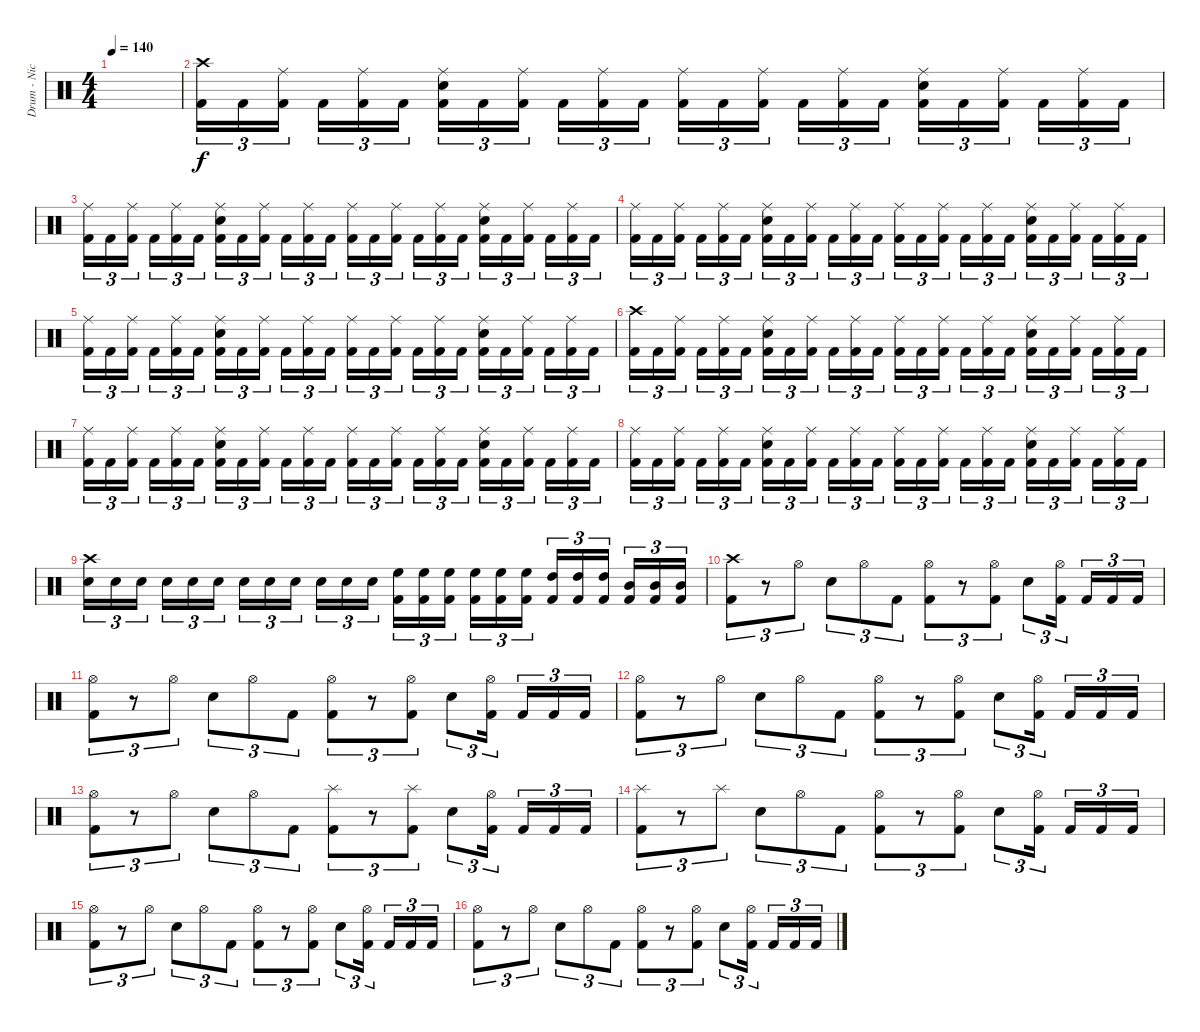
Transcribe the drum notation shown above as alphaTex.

\track ("Drum - Nicholas" "Drum - Nic") {instrument percussion}
\staff {score}
\articulation defaults
\ts (4 4)
\tempo 140
\clef neutral
\ks c
|
("Crash high (hit)" "Kick (hit) 2").16{tu (3 2)} "Kick (hit) 2".16{tu (3 2)} ("Ride (middle)" "Kick (hit) 2").16{tu (3 2) beam splitsecondary} "Kick (hit) 2".16{tu (3 2)} ("Ride (middle)" "Kick (hit) 2").16{tu (3 2)} "Kick (hit) 2".16{tu (3 2)} ("Ride (middle)" "Snare (hit) 2" "Kick (hit) 2").16{tu (3 2)} "Kick (hit) 2".16{tu (3 2)} ("Ride (middle)" "Kick (hit) 2").16{tu (3 2) beam splitsecondary} "Kick (hit) 2".16{tu (3 2)} ("Ride (middle)" "Kick (hit) 2").16{tu (3 2)} "Kick (hit) 2".16{tu (3 2)} ("Ride (middle)" "Kick (hit) 2").16{tu (3 2)} "Kick (hit) 2".16{tu (3 2)} ("Ride (middle)" "Kick (hit) 2").16{tu (3 2) beam splitsecondary} "Kick (hit) 2".16{tu (3 2)} ("Ride (middle)" "Kick (hit) 2").16{tu (3 2)} "Kick (hit) 2".16{tu (3 2)} ("Ride (middle)" "Snare (hit) 2" "Kick (hit) 2").16{tu (3 2)} "Kick (hit) 2".16{tu (3 2)} ("Ride (middle)" "Kick (hit) 2").16{tu (3 2) beam splitsecondary} "Kick (hit) 2".16{tu (3 2)} ("Ride (middle)" "Kick (hit) 2").16{tu (3 2)} "Kick (hit) 2".16{tu (3 2)} |
("Ride (middle)" "Kick (hit) 2").16{tu (3 2)} "Kick (hit) 2".16{tu (3 2)} ("Ride (middle)" "Kick (hit) 2").16{tu (3 2) beam splitsecondary} "Kick (hit) 2".16{tu (3 2)} ("Ride (middle)" "Kick (hit) 2").16{tu (3 2)} "Kick (hit) 2".16{tu (3 2)} ("Ride (middle)" "Snare (hit) 2" "Kick (hit) 2").16{tu (3 2)} "Kick (hit) 2".16{tu (3 2)} ("Ride (middle)" "Kick (hit) 2").16{tu (3 2) beam splitsecondary} "Kick (hit) 2".16{tu (3 2)} ("Ride (middle)" "Kick (hit) 2").16{tu (3 2)} "Kick (hit) 2".16{tu (3 2)} ("Ride (middle)" "Kick (hit) 2").16{tu (3 2)} "Kick (hit) 2".16{tu (3 2)} ("Ride (middle)" "Kick (hit) 2").16{tu (3 2) beam splitsecondary} "Kick (hit) 2".16{tu (3 2)} ("Ride (middle)" "Kick (hit) 2").16{tu (3 2)} "Kick (hit) 2".16{tu (3 2)} ("Ride (middle)" "Snare (hit) 2" "Kick (hit) 2").16{tu (3 2)} "Kick (hit) 2".16{tu (3 2)} ("Ride (middle)" "Kick (hit) 2").16{tu (3 2) beam splitsecondary} "Kick (hit) 2".16{tu (3 2)} ("Ride (middle)" "Kick (hit) 2").16{tu (3 2)} "Kick (hit) 2".16{tu (3 2)} |
("Ride (middle)" "Kick (hit) 2").16{tu (3 2)} "Kick (hit) 2".16{tu (3 2)} ("Ride (middle)" "Kick (hit) 2").16{tu (3 2) beam splitsecondary} "Kick (hit) 2".16{tu (3 2)} ("Ride (middle)" "Kick (hit) 2").16{tu (3 2)} "Kick (hit) 2".16{tu (3 2)} ("Ride (middle)" "Snare (hit) 2" "Kick (hit) 2").16{tu (3 2)} "Kick (hit) 2".16{tu (3 2)} ("Ride (middle)" "Kick (hit) 2").16{tu (3 2) beam splitsecondary} "Kick (hit) 2".16{tu (3 2)} ("Ride (middle)" "Kick (hit) 2").16{tu (3 2)} "Kick (hit) 2".16{tu (3 2)} ("Ride (middle)" "Kick (hit) 2").16{tu (3 2)} "Kick (hit) 2".16{tu (3 2)} ("Ride (middle)" "Kick (hit) 2").16{tu (3 2) beam splitsecondary} "Kick (hit) 2".16{tu (3 2)} ("Ride (middle)" "Kick (hit) 2").16{tu (3 2)} "Kick (hit) 2".16{tu (3 2)} ("Ride (middle)" "Snare (hit) 2" "Kick (hit) 2").16{tu (3 2)} "Kick (hit) 2".16{tu (3 2)} ("Ride (middle)" "Kick (hit) 2").16{tu (3 2) beam splitsecondary} "Kick (hit) 2".16{tu (3 2)} ("Ride (middle)" "Kick (hit) 2").16{tu (3 2)} "Kick (hit) 2".16{tu (3 2)} |
("Ride (middle)" "Kick (hit) 2").16{tu (3 2)} "Kick (hit) 2".16{tu (3 2)} ("Ride (middle)" "Kick (hit) 2").16{tu (3 2) beam splitsecondary} "Kick (hit) 2".16{tu (3 2)} ("Ride (middle)" "Kick (hit) 2").16{tu (3 2)} "Kick (hit) 2".16{tu (3 2)} ("Ride (middle)" "Snare (hit) 2" "Kick (hit) 2").16{tu (3 2)} "Kick (hit) 2".16{tu (3 2)} ("Ride (middle)" "Kick (hit) 2").16{tu (3 2) beam splitsecondary} "Kick (hit) 2".16{tu (3 2)} ("Ride (middle)" "Kick (hit) 2").16{tu (3 2)} "Kick (hit) 2".16{tu (3 2)} ("Ride (middle)" "Kick (hit) 2").16{tu (3 2)} "Kick (hit) 2".16{tu (3 2)} ("Ride (middle)" "Kick (hit) 2").16{tu (3 2) beam splitsecondary} "Kick (hit) 2".16{tu (3 2)} ("Ride (middle)" "Kick (hit) 2").16{tu (3 2)} "Kick (hit) 2".16{tu (3 2)} ("Ride (middle)" "Snare (hit) 2" "Kick (hit) 2").16{tu (3 2)} "Kick (hit) 2".16{tu (3 2)} ("Ride (middle)" "Kick (hit) 2").16{tu (3 2) beam splitsecondary} "Kick (hit) 2".16{tu (3 2)} ("Ride (middle)" "Kick (hit) 2").16{tu (3 2)} "Kick (hit) 2".16{tu (3 2)} |
("Crash high (hit)" "Kick (hit) 2").16{tu (3 2)} "Kick (hit) 2".16{tu (3 2)} ("Ride (middle)" "Kick (hit) 2").16{tu (3 2) beam splitsecondary} "Kick (hit) 2".16{tu (3 2)} ("Ride (middle)" "Kick (hit) 2").16{tu (3 2)} "Kick (hit) 2".16{tu (3 2)} ("Ride (middle)" "Snare (hit) 2" "Kick (hit) 2").16{tu (3 2)} "Kick (hit) 2".16{tu (3 2)} ("Ride (middle)" "Kick (hit) 2").16{tu (3 2) beam splitsecondary} "Kick (hit) 2".16{tu (3 2)} ("Ride (middle)" "Kick (hit) 2").16{tu (3 2)} "Kick (hit) 2".16{tu (3 2)} ("Ride (middle)" "Kick (hit) 2").16{tu (3 2)} "Kick (hit) 2".16{tu (3 2)} ("Ride (middle)" "Kick (hit) 2").16{tu (3 2) beam splitsecondary} "Kick (hit) 2".16{tu (3 2)} ("Ride (middle)" "Kick (hit) 2").16{tu (3 2)} "Kick (hit) 2".16{tu (3 2)} ("Ride (middle)" "Snare (hit) 2" "Kick (hit) 2").16{tu (3 2)} "Kick (hit) 2".16{tu (3 2)} ("Ride (middle)" "Kick (hit) 2").16{tu (3 2) beam splitsecondary} "Kick (hit) 2".16{tu (3 2)} ("Ride (middle)" "Kick (hit) 2").16{tu (3 2)} "Kick (hit) 2".16{tu (3 2)} |
("Ride (middle)" "Kick (hit) 2").16{tu (3 2)} "Kick (hit) 2".16{tu (3 2)} ("Ride (middle)" "Kick (hit) 2").16{tu (3 2) beam splitsecondary} "Kick (hit) 2".16{tu (3 2)} ("Ride (middle)" "Kick (hit) 2").16{tu (3 2)} "Kick (hit) 2".16{tu (3 2)} ("Ride (middle)" "Snare (hit) 2" "Kick (hit) 2").16{tu (3 2)} "Kick (hit) 2".16{tu (3 2)} ("Ride (middle)" "Kick (hit) 2").16{tu (3 2) beam splitsecondary} "Kick (hit) 2".16{tu (3 2)} ("Ride (middle)" "Kick (hit) 2").16{tu (3 2)} "Kick (hit) 2".16{tu (3 2)} ("Ride (middle)" "Kick (hit) 2").16{tu (3 2)} "Kick (hit) 2".16{tu (3 2)} ("Ride (middle)" "Kick (hit) 2").16{tu (3 2) beam splitsecondary} "Kick (hit) 2".16{tu (3 2)} ("Ride (middle)" "Kick (hit) 2").16{tu (3 2)} "Kick (hit) 2".16{tu (3 2)} ("Ride (middle)" "Snare (hit) 2" "Kick (hit) 2").16{tu (3 2)} "Kick (hit) 2".16{tu (3 2)} ("Ride (middle)" "Kick (hit) 2").16{tu (3 2) beam splitsecondary} "Kick (hit) 2".16{tu (3 2)} ("Ride (middle)" "Kick (hit) 2").16{tu (3 2)} "Kick (hit) 2".16{tu (3 2)} |
("Ride (middle)" "Kick (hit) 2").16{tu (3 2)} "Kick (hit) 2".16{tu (3 2)} ("Ride (middle)" "Kick (hit) 2").16{tu (3 2) beam splitsecondary} "Kick (hit) 2".16{tu (3 2)} ("Ride (middle)" "Kick (hit) 2").16{tu (3 2)} "Kick (hit) 2".16{tu (3 2)} ("Ride (middle)" "Snare (hit) 2" "Kick (hit) 2").16{tu (3 2)} "Kick (hit) 2".16{tu (3 2)} ("Ride (middle)" "Kick (hit) 2").16{tu (3 2) beam splitsecondary} "Kick (hit) 2".16{tu (3 2)} ("Ride (middle)" "Kick (hit) 2").16{tu (3 2)} "Kick (hit) 2".16{tu (3 2)} ("Ride (middle)" "Kick (hit) 2").16{tu (3 2)} "Kick (hit) 2".16{tu (3 2)} ("Ride (middle)" "Kick (hit) 2").16{tu (3 2) beam splitsecondary} "Kick (hit) 2".16{tu (3 2)} ("Ride (middle)" "Kick (hit) 2").16{tu (3 2)} "Kick (hit) 2".16{tu (3 2)} ("Ride (middle)" "Snare (hit) 2" "Kick (hit) 2").16{tu (3 2)} "Kick (hit) 2".16{tu (3 2)} ("Ride (middle)" "Kick (hit) 2").16{tu (3 2) beam splitsecondary} "Kick (hit) 2".16{tu (3 2)} ("Ride (middle)" "Kick (hit) 2").16{tu (3 2)} "Kick (hit) 2".16{tu (3 2)} |
("Crash high (hit)" "Snare (hit) 2").16{tu (3 2)} "Snare (hit) 2".16{tu (3 2)} "Snare (hit) 2".16{tu (3 2) beam splitsecondary} "Snare (hit) 2".16{tu (3 2)} "Snare (hit) 2".16{tu (3 2)} "Snare (hit) 2".16{tu (3 2)} "Snare (hit) 2".16{tu (3 2)} "Snare (hit) 2".16{tu (3 2)} "Snare (hit) 2".16{tu (3 2) beam splitsecondary} "Snare (hit) 2".16{tu (3 2)} "Snare (hit) 2".16{tu (3 2)} "Snare (hit) 2".16{tu (3 2)} ("High Floor Tom (hit)" "Kick (hit) 2").16{tu (3 2)} ("High Floor Tom (hit)" "Kick (hit) 2").16{tu (3 2)} ("High Floor Tom (hit)" "Kick (hit) 2").16{tu (3 2) beam splitsecondary} ("High Floor Tom (hit)" "Kick (hit) 2").16{tu (3 2)} ("High Floor Tom (hit)" "Kick (hit) 2").16{tu (3 2)} ("High Floor Tom (hit)" "Kick (hit) 2").16{tu (3 2)} ("High Tom (hit)" "Kick (hit) 2").16{tu (3 2)} ("High Tom (hit)" "Kick (hit) 2").16{tu (3 2)} ("High Tom (hit)" "Kick (hit) 2").16{tu (3 2) beam splitsecondary} ("Mid Tom (hit)" "Kick (hit) 2").16{tu (3 2)} ("Mid Tom (hit)" "Kick (hit) 2").16{tu (3 2)} ("Mid Tom (hit)" "Kick (hit) 2").16{tu (3 2)} |
("Crash high (hit)" "Kick (hit) 2").8{tu (3 2)} r.8{tu (3 2)} "Hi-Hat (open)".8{tu (3 2)} "Snare (hit) 2".8{tu (3 2)} "Hi-Hat (open)".8{tu (3 2)} "Kick (hit) 2".8{tu (3 2)} ("Hi-Hat (open)" "Kick (hit) 2").8{tu (3 2)} r.8{tu (3 2)} ("Hi-Hat (open)" "Kick (hit) 2").8{tu (3 2)} "Snare (hit) 2".8{tu (3 2)} ("Hi-Hat (open)" "Kick (hit) 2").16{tu (3 2) beam splitsecondary} "Kick (hit) 2".16{tu (3 2)} "Kick (hit) 2".16{tu (3 2)} "Kick (hit) 2".16{tu (3 2)} |
("Hi-Hat (open)" "Kick (hit) 2").8{tu (3 2)} r.8{tu (3 2)} "Hi-Hat (open)".8{tu (3 2)} "Snare (hit) 2".8{tu (3 2)} "Hi-Hat (open)".8{tu (3 2)} "Kick (hit) 2".8{tu (3 2)} ("Hi-Hat (open)" "Kick (hit) 2").8{tu (3 2)} r.8{tu (3 2)} ("Hi-Hat (open)" "Kick (hit) 2").8{tu (3 2)} "Snare (hit) 2".8{tu (3 2)} ("Hi-Hat (open)" "Kick (hit) 2").16{tu (3 2) beam splitsecondary} "Kick (hit) 2".16{tu (3 2)} "Kick (hit) 2".16{tu (3 2)} "Kick (hit) 2".16{tu (3 2)} |
("Hi-Hat (open)" "Kick (hit) 2").8{tu (3 2)} r.8{tu (3 2)} "Hi-Hat (open)".8{tu (3 2)} "Snare (hit) 2".8{tu (3 2)} "Hi-Hat (open)".8{tu (3 2)} "Kick (hit) 2".8{tu (3 2)} ("Hi-Hat (open)" "Kick (hit) 2").8{tu (3 2)} r.8{tu (3 2)} ("Hi-Hat (open)" "Kick (hit) 2").8{tu (3 2)} "Snare (hit) 2".8{tu (3 2)} ("Hi-Hat (open)" "Kick (hit) 2").16{tu (3 2) beam splitsecondary} "Kick (hit) 2".16{tu (3 2)} "Kick (hit) 2".16{tu (3 2)} "Kick (hit) 2".16{tu (3 2)} |
("Hi-Hat (open)" "Kick (hit) 2").8{tu (3 2)} r.8{tu (3 2)} "Hi-Hat (open)".8{tu (3 2)} "Snare (hit) 2".8{tu (3 2)} "Hi-Hat (open)".8{tu (3 2)} "Kick (hit) 2".8{tu (3 2)} ("Splash (hit)" "Kick (hit) 2").8{tu (3 2)} r.8{tu (3 2)} ("Splash (hit)" "Kick (hit) 2").8{tu (3 2)} "Snare (hit) 2".8{tu (3 2)} ("Hi-Hat (open)" "Kick (hit) 2").16{tu (3 2) beam splitsecondary} "Kick (hit) 2".16{tu (3 2)} "Kick (hit) 2".16{tu (3 2)} "Kick (hit) 2".16{tu (3 2)} |
("Splash (hit)" "Kick (hit) 2").8{tu (3 2)} r.8{tu (3 2)} "Splash (hit)".8{tu (3 2)} "Snare (hit) 2".8{tu (3 2)} "Hi-Hat (open)".8{tu (3 2)} "Kick (hit) 2".8{tu (3 2)} ("Hi-Hat (open)" "Kick (hit) 2").8{tu (3 2)} r.8{tu (3 2)} ("Hi-Hat (open)" "Kick (hit) 2").8{tu (3 2)} "Snare (hit) 2".8{tu (3 2)} ("Hi-Hat (open)" "Kick (hit) 2").16{tu (3 2) beam splitsecondary} "Kick (hit) 2".16{tu (3 2)} "Kick (hit) 2".16{tu (3 2)} "Kick (hit) 2".16{tu (3 2)} |
("Hi-Hat (open)" "Kick (hit) 2").8{tu (3 2)} r.8{tu (3 2)} "Hi-Hat (open)".8{tu (3 2)} "Snare (hit) 2".8{tu (3 2)} "Hi-Hat (open)".8{tu (3 2)} "Kick (hit) 2".8{tu (3 2)} ("Hi-Hat (open)" "Kick (hit) 2").8{tu (3 2)} r.8{tu (3 2)} ("Hi-Hat (open)" "Kick (hit) 2").8{tu (3 2)} "Snare (hit) 2".8{tu (3 2)} ("Hi-Hat (open)" "Kick (hit) 2").16{tu (3 2) beam splitsecondary} "Kick (hit) 2".16{tu (3 2)} "Kick (hit) 2".16{tu (3 2)} "Kick (hit) 2".16{tu (3 2)} |
("Hi-Hat (open)" "Kick (hit) 2").8{tu (3 2)} r.8{tu (3 2)} "Hi-Hat (open)".8{tu (3 2)} "Snare (hit) 2".8{tu (3 2)} "Hi-Hat (open)".8{tu (3 2)} "Kick (hit) 2".8{tu (3 2)} ("Hi-Hat (open)" "Kick (hit) 2").8{tu (3 2)} r.8{tu (3 2)} ("Hi-Hat (open)" "Kick (hit) 2").8{tu (3 2)} "Snare (hit) 2".8{tu (3 2)} ("Hi-Hat (open)" "Kick (hit) 2").16{tu (3 2) beam splitsecondary} "Kick (hit) 2".16{tu (3 2)} "Kick (hit) 2".16{tu (3 2)} "Kick (hit) 2".16{tu (3 2)}
